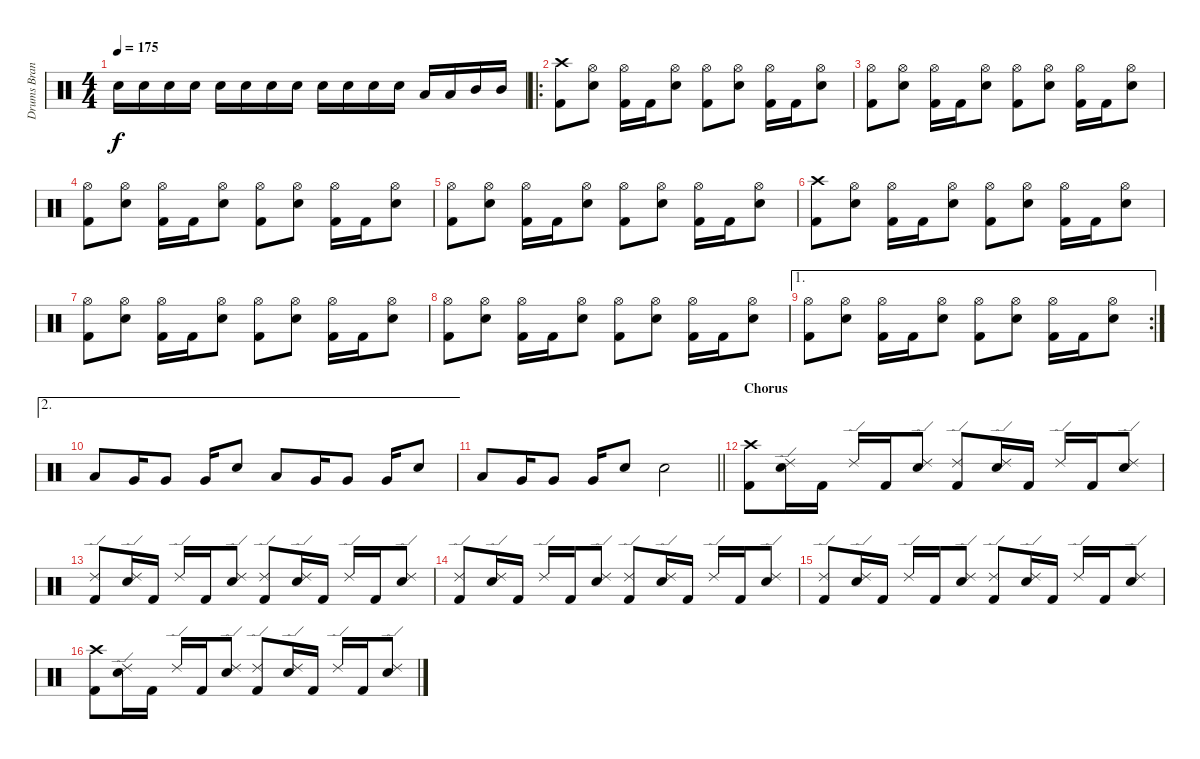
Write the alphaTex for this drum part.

\track ("Drums Brandon" "Drums Bran") {instrument percussion}
\staff {score}
\articulation defaults
\ts (4 4)
\tempo 175
\clef neutral
\ks c "Electric Snare (hit)".16{dy f} "Electric Snare (hit)".16 "Electric Snare (hit)".16 "Electric Snare (hit)".16 "Electric Snare (hit)".16 "Electric Snare (hit)".16 "Electric Snare (hit)".16 "Electric Snare (hit)".16 "Electric Snare (hit)".16 "Electric Snare (hit)".16 "Electric Snare (hit)".16 "Electric Snare (hit)".16 "Low Tom (hit)".16 "Low Tom (hit)".16 "Mid Tom (hit)".16 "Mid Tom (hit)".16
|
\ro
("Crash high (hit)" "Kick (hit) 2").8 ("Hi-Hat (open)" "Electric Snare (hit)").8 ("Hi-Hat (open)" "Kick (hit) 2").16 "Kick (hit) 2".16 ("Hi-Hat (open)" "Electric Snare (hit)").8 ("Hi-Hat (open)" "Kick (hit) 2").8 ("Hi-Hat (open)" "Electric Snare (hit)").8 ("Hi-Hat (open)" "Kick (hit) 2").16 "Kick (hit) 2".16 ("Hi-Hat (open)" "Electric Snare (hit)").8 |
("Hi-Hat (open)" "Kick (hit) 2").8 ("Hi-Hat (open)" "Electric Snare (hit)").8 ("Hi-Hat (open)" "Kick (hit) 2").16 "Kick (hit) 2".16 ("Hi-Hat (open)" "Electric Snare (hit)").8 ("Hi-Hat (open)" "Kick (hit) 2").8 ("Hi-Hat (open)" "Electric Snare (hit)").8 ("Hi-Hat (open)" "Kick (hit) 2").16 "Kick (hit) 2".16 ("Hi-Hat (open)" "Electric Snare (hit)").8 |
("Hi-Hat (open)" "Kick (hit) 2").8 ("Hi-Hat (open)" "Electric Snare (hit)").8 ("Hi-Hat (open)" "Kick (hit) 2").16 "Kick (hit) 2".16 ("Hi-Hat (open)" "Electric Snare (hit)").8 ("Hi-Hat (open)" "Kick (hit) 2").8 ("Hi-Hat (open)" "Electric Snare (hit)").8 ("Hi-Hat (open)" "Kick (hit) 2").16 "Kick (hit) 2".16 ("Hi-Hat (open)" "Electric Snare (hit)").8 |
("Hi-Hat (open)" "Kick (hit) 2").8 ("Hi-Hat (open)" "Electric Snare (hit)").8 ("Hi-Hat (open)" "Kick (hit) 2").16 "Kick (hit) 2".16 ("Hi-Hat (open)" "Electric Snare (hit)").8 ("Hi-Hat (open)" "Kick (hit) 2").8 ("Hi-Hat (open)" "Electric Snare (hit)").8 ("Hi-Hat (open)" "Kick (hit) 2").16 "Kick (hit) 2".16 ("Hi-Hat (open)" "Electric Snare (hit)").8 |
("Crash high (hit)" "Kick (hit) 2").8 ("Hi-Hat (open)" "Electric Snare (hit)").8 ("Hi-Hat (open)" "Kick (hit) 2").16 "Kick (hit) 2".16 ("Hi-Hat (open)" "Electric Snare (hit)").8 ("Hi-Hat (open)" "Kick (hit) 2").8 ("Hi-Hat (open)" "Electric Snare (hit)").8 ("Hi-Hat (open)" "Kick (hit) 2").16 "Kick (hit) 2".16 ("Hi-Hat (open)" "Electric Snare (hit)").8 |
("Hi-Hat (open)" "Kick (hit) 2").8 ("Hi-Hat (open)" "Electric Snare (hit)").8 ("Hi-Hat (open)" "Kick (hit) 2").16 "Kick (hit) 2".16 ("Hi-Hat (open)" "Electric Snare (hit)").8 ("Hi-Hat (open)" "Kick (hit) 2").8 ("Hi-Hat (open)" "Electric Snare (hit)").8 ("Hi-Hat (open)" "Kick (hit) 2").16 "Kick (hit) 2".16 ("Hi-Hat (open)" "Electric Snare (hit)").8 |
("Hi-Hat (open)" "Kick (hit) 2").8 ("Hi-Hat (open)" "Electric Snare (hit)").8 ("Hi-Hat (open)" "Kick (hit) 2").16 "Kick (hit) 2".16 ("Hi-Hat (open)" "Electric Snare (hit)").8 ("Hi-Hat (open)" "Kick (hit) 2").8 ("Hi-Hat (open)" "Electric Snare (hit)").8 ("Hi-Hat (open)" "Kick (hit) 2").16 "Kick (hit) 2".16 ("Hi-Hat (open)" "Electric Snare (hit)").8 |
\ae 1
\rc 2
("Hi-Hat (open)" "Kick (hit) 2").8 ("Hi-Hat (open)" "Electric Snare (hit)").8 ("Hi-Hat (open)" "Kick (hit) 2").16 "Kick (hit) 2".16 ("Hi-Hat (open)" "Electric Snare (hit)").8 ("Hi-Hat (open)" "Kick (hit) 2").8 ("Hi-Hat (open)" "Electric Snare (hit)").8 ("Hi-Hat (open)" "Kick (hit) 2").16 "Kick (hit) 2".16 ("Hi-Hat (open)" "Electric Snare (hit)").8 |
\ae 2 "Low Tom (hit)".8 "Very Low Tom (hit)".16 "Very Low Tom (hit)".8 "Very Low Tom (hit)".16 "Electric Snare (hit)".8 "Low Tom (hit)".8 "Very Low Tom (hit)".16 "Very Low Tom (hit)".8 "Very Low Tom (hit)".16 "Electric Snare (hit)".8
|
\barLineRight lightlight "Low Tom (hit)".8 "Very Low Tom (hit)".16 "Very Low Tom (hit)".8 "Very Low Tom (hit)".16 "Electric Snare (hit)".8 "Electric Snare (hit)".2
|
\section ("" "Chorus")
("Crash high (hit)" "Kick (hit) 2").8 ("Ride (edge) 2" "Electric Snare (hit)").16 "Kick (hit) 2".16 "Ride (edge) 2".16 "Kick (hit) 2".16 ("Ride (edge) 2" "Electric Snare (hit)").8 ("Ride (edge) 2" "Kick (hit) 2").8 ("Ride (edge) 2" "Electric Snare (hit)").16 "Kick (hit) 2".16 "Ride (edge) 2".16 "Kick (hit) 2".16 ("Ride (edge) 2" "Electric Snare (hit)").8 |
("Ride (edge) 2" "Kick (hit) 2").8 ("Ride (edge) 2" "Electric Snare (hit)").16 "Kick (hit) 2".16 "Ride (edge) 2".16 "Kick (hit) 2".16 ("Ride (edge) 2" "Electric Snare (hit)").8 ("Ride (edge) 2" "Kick (hit) 2").8 ("Ride (edge) 2" "Electric Snare (hit)").16 "Kick (hit) 2".16 "Ride (edge) 2".16 "Kick (hit) 2".16 ("Ride (edge) 2" "Electric Snare (hit)").8 |
("Ride (edge) 2" "Kick (hit) 2").8 ("Ride (edge) 2" "Electric Snare (hit)").16 "Kick (hit) 2".16 "Ride (edge) 2".16 "Kick (hit) 2".16 ("Ride (edge) 2" "Electric Snare (hit)").8 ("Ride (edge) 2" "Kick (hit) 2").8 ("Ride (edge) 2" "Electric Snare (hit)").16 "Kick (hit) 2".16 "Ride (edge) 2".16 "Kick (hit) 2".16 ("Ride (edge) 2" "Electric Snare (hit)").8 |
("Ride (edge) 2" "Kick (hit) 2").8 ("Ride (edge) 2" "Electric Snare (hit)").16 "Kick (hit) 2".16 "Ride (edge) 2".16 "Kick (hit) 2".16 ("Ride (edge) 2" "Electric Snare (hit)").8 ("Ride (edge) 2" "Kick (hit) 2").8 ("Ride (edge) 2" "Electric Snare (hit)").16 "Kick (hit) 2".16 "Ride (edge) 2".16 "Kick (hit) 2".16 ("Ride (edge) 2" "Electric Snare (hit)").8 |
("Crash high (hit)" "Kick (hit) 2").8 ("Ride (edge) 2" "Electric Snare (hit)").16 "Kick (hit) 2".16 "Ride (edge) 2".16 "Kick (hit) 2".16 ("Ride (edge) 2" "Electric Snare (hit)").8 ("Ride (edge) 2" "Kick (hit) 2").8 ("Ride (edge) 2" "Electric Snare (hit)").16 "Kick (hit) 2".16 "Ride (edge) 2".16 "Kick (hit) 2".16 ("Ride (edge) 2" "Electric Snare (hit)").8
